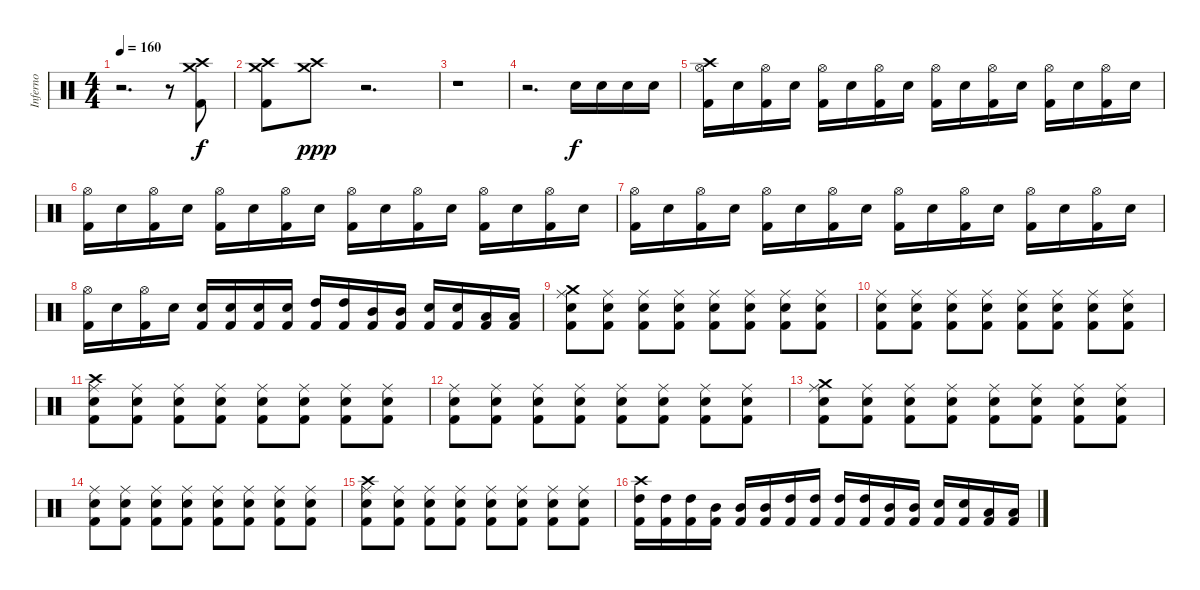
\track ("Inferno" "Inferno") {instrument percussion}
\staff {score}
\articulation defaults
\ts (4 4)
\tempo 160
\clef neutral
\ks c
r.2{d dy f} r.8 ("Crash high (hit)" "Crash medium (hit)" "Kick (hit) 2").8 |
("Crash high (hit)" "Crash medium (hit)" "Kick (hit) 2").8 ("Crash high (hit)" "Crash medium (hit)").8{dy ppp} r.2{d} |
r.1 |
r.2{d} "Electric Snare (hit)".16{dy f} "Electric Snare (hit)".16 "Electric Snare (hit)".16 "Electric Snare (hit)".16 |
("Crash high (hit)" "Hi-Hat (open)" "Kick (hit) 2").16 "Electric Snare (hit)".16 ("Hi-Hat (open)" "Kick (hit) 2").16 "Electric Snare (hit)".16 ("Hi-Hat (open)" "Kick (hit) 2").16 "Electric Snare (hit)".16 ("Hi-Hat (open)" "Kick (hit) 2").16 "Electric Snare (hit)".16 ("Hi-Hat (open)" "Kick (hit) 2").16 "Electric Snare (hit)".16 ("Hi-Hat (open)" "Kick (hit) 2").16 "Electric Snare (hit)".16 ("Hi-Hat (open)" "Kick (hit) 2").16 "Electric Snare (hit)".16 ("Hi-Hat (open)" "Kick (hit) 2").16 "Electric Snare (hit)".16 |
("Hi-Hat (open)" "Kick (hit) 2").16 "Electric Snare (hit)".16 ("Hi-Hat (open)" "Kick (hit) 2").16 "Electric Snare (hit)".16 ("Hi-Hat (open)" "Kick (hit) 2").16 "Electric Snare (hit)".16 ("Hi-Hat (open)" "Kick (hit) 2").16 "Electric Snare (hit)".16 ("Hi-Hat (open)" "Kick (hit) 2").16 "Electric Snare (hit)".16 ("Hi-Hat (open)" "Kick (hit) 2").16 "Electric Snare (hit)".16 ("Hi-Hat (open)" "Kick (hit) 2").16 "Electric Snare (hit)".16 ("Hi-Hat (open)" "Kick (hit) 2").16 "Electric Snare (hit)".16 |
("Hi-Hat (open)" "Kick (hit) 2").16 "Electric Snare (hit)".16 ("Hi-Hat (open)" "Kick (hit) 2").16 "Electric Snare (hit)".16 ("Hi-Hat (open)" "Kick (hit) 2").16 "Electric Snare (hit)".16 ("Hi-Hat (open)" "Kick (hit) 2").16 "Electric Snare (hit)".16 ("Hi-Hat (open)" "Kick (hit) 2").16 "Electric Snare (hit)".16 ("Hi-Hat (open)" "Kick (hit) 2").16 "Electric Snare (hit)".16 ("Hi-Hat (open)" "Kick (hit) 2").16 "Electric Snare (hit)".16 ("Hi-Hat (open)" "Kick (hit) 2").16 "Electric Snare (hit)".16 |
("Hi-Hat (open)" "Kick (hit) 2").16 "Electric Snare (hit)".16 ("Hi-Hat (open)" "Kick (hit) 2").16 "Electric Snare (hit)".16 ("Electric Snare (hit)" "Kick (hit) 2").16 ("Electric Snare (hit)" "Kick (hit) 2").16 ("Electric Snare (hit)" "Kick (hit) 2").16 ("Electric Snare (hit)" "Kick (hit) 2").16 ("High Tom (hit)" "Kick (hit) 2").16 ("High Tom (hit)" "Kick (hit) 2").16 ("Mid Tom (hit)" "Kick (hit) 2").16 ("Mid Tom (hit)" "Kick (hit) 2").16 ("Electric Snare (hit)" "Kick (hit) 2").16 ("Electric Snare (hit)" "Kick (hit) 2").16 ("Low Tom (hit)" "Kick (hit) 2").16 ("Low Tom (hit)" "Kick (hit) 2").16 |
("Crash medium (hit)" "Ride (middle)" "Electric Snare (hit)" "Kick (hit) 2").8 ("Ride (middle)" "Electric Snare (hit)" "Kick (hit) 2").8 ("Ride (middle)" "Electric Snare (hit)" "Kick (hit) 2").8 ("Ride (middle)" "Electric Snare (hit)" "Kick (hit) 2").8 ("Ride (middle)" "Electric Snare (hit)" "Kick (hit) 2").8 ("Ride (middle)" "Electric Snare (hit)" "Kick (hit) 2").8 ("Ride (middle)" "Electric Snare (hit)" "Kick (hit) 2").8 ("Ride (middle)" "Electric Snare (hit)" "Kick (hit) 2").8 |
("Ride (middle)" "Electric Snare (hit)" "Kick (hit) 2").8 ("Ride (middle)" "Electric Snare (hit)" "Kick (hit) 2").8 ("Ride (middle)" "Electric Snare (hit)" "Kick (hit) 2").8 ("Ride (middle)" "Electric Snare (hit)" "Kick (hit) 2").8 ("Ride (middle)" "Electric Snare (hit)" "Kick (hit) 2").8 ("Ride (middle)" "Electric Snare (hit)" "Kick (hit) 2").8 ("Ride (middle)" "Electric Snare (hit)" "Kick (hit) 2").8 ("Ride (middle)" "Electric Snare (hit)" "Kick (hit) 2").8 |
("Crash high (hit)" "Ride (middle)" "Electric Snare (hit)" "Kick (hit) 2").8 ("Ride (middle)" "Electric Snare (hit)" "Kick (hit) 2").8 ("Ride (middle)" "Electric Snare (hit)" "Kick (hit) 2").8 ("Ride (middle)" "Electric Snare (hit)" "Kick (hit) 2").8 ("Ride (middle)" "Electric Snare (hit)" "Kick (hit) 2").8 ("Ride (middle)" "Electric Snare (hit)" "Kick (hit) 2").8 ("Ride (middle)" "Electric Snare (hit)" "Kick (hit) 2").8 ("Ride (middle)" "Electric Snare (hit)" "Kick (hit) 2").8 |
("Ride (middle)" "Electric Snare (hit)" "Kick (hit) 2").8 ("Ride (middle)" "Electric Snare (hit)" "Kick (hit) 2").8 ("Ride (middle)" "Electric Snare (hit)" "Kick (hit) 2").8 ("Ride (middle)" "Electric Snare (hit)" "Kick (hit) 2").8 ("Ride (middle)" "Electric Snare (hit)" "Kick (hit) 2").8 ("Ride (middle)" "Electric Snare (hit)" "Kick (hit) 2").8 ("Ride (middle)" "Electric Snare (hit)" "Kick (hit) 2").8 ("Ride (middle)" "Electric Snare (hit)" "Kick (hit) 2").8 |
("Crash medium (hit)" "Ride (middle)" "Electric Snare (hit)" "Kick (hit) 2").8 ("Ride (middle)" "Electric Snare (hit)" "Kick (hit) 2").8 ("Ride (middle)" "Electric Snare (hit)" "Kick (hit) 2").8 ("Ride (middle)" "Electric Snare (hit)" "Kick (hit) 2").8 ("Ride (middle)" "Electric Snare (hit)" "Kick (hit) 2").8 ("Ride (middle)" "Electric Snare (hit)" "Kick (hit) 2").8 ("Ride (middle)" "Electric Snare (hit)" "Kick (hit) 2").8 ("Ride (middle)" "Electric Snare (hit)" "Kick (hit) 2").8 |
("Ride (middle)" "Electric Snare (hit)" "Kick (hit) 2").8 ("Ride (middle)" "Electric Snare (hit)" "Kick (hit) 2").8 ("Ride (middle)" "Electric Snare (hit)" "Kick (hit) 2").8 ("Ride (middle)" "Electric Snare (hit)" "Kick (hit) 2").8 ("Ride (middle)" "Electric Snare (hit)" "Kick (hit) 2").8 ("Ride (middle)" "Electric Snare (hit)" "Kick (hit) 2").8 ("Ride (middle)" "Electric Snare (hit)" "Kick (hit) 2").8 ("Ride (middle)" "Electric Snare (hit)" "Kick (hit) 2").8 |
("Crash high (hit)" "Ride (middle)" "Electric Snare (hit)" "Kick (hit) 2").8 ("Ride (middle)" "Electric Snare (hit)" "Kick (hit) 2").8 ("Ride (middle)" "Electric Snare (hit)" "Kick (hit) 2").8 ("Ride (middle)" "Electric Snare (hit)" "Kick (hit) 2").8 ("Ride (middle)" "Electric Snare (hit)" "Kick (hit) 2").8 ("Ride (middle)" "Electric Snare (hit)" "Kick (hit) 2").8 ("Ride (middle)" "Electric Snare (hit)" "Kick (hit) 2").8 ("Ride (middle)" "Electric Snare (hit)" "Kick (hit) 2").8 |
("Crash high (hit)" "High Tom (hit)" "Kick (hit) 2").16 ("High Tom (hit)" "Kick (hit) 2").16 ("High Tom (hit)" "Kick (hit) 2").16 ("Mid Tom (hit)" "Kick (hit) 2").16 ("Mid Tom (hit)" "Kick (hit) 2").16 ("Mid Tom (hit)" "Kick (hit) 2").16 ("High Tom (hit)" "Kick (hit) 2").16 ("High Tom (hit)" "Kick (hit) 2").16 ("High Tom (hit)" "Kick (hit) 2").16 ("High Tom (hit)" "Kick (hit) 2").16 ("Mid Tom (hit)" "Kick (hit) 2").16 ("Mid Tom (hit)" "Kick (hit) 2").16 ("Electric Snare (hit)" "Kick (hit) 2").16 ("Electric Snare (hit)" "Kick (hit) 2").16 ("Low Tom (hit)" "Kick (hit) 2").16 ("Low Tom (hit)" "Kick (hit) 2").16
